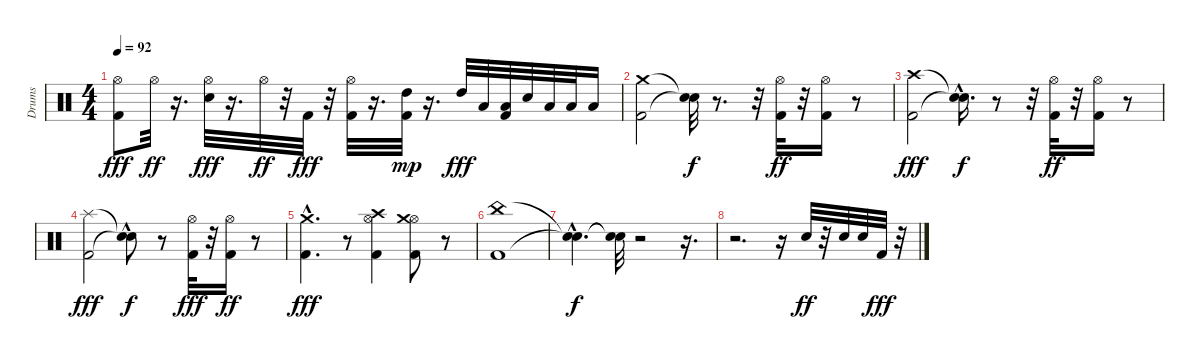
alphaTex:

\track ("Drums" "Drums") {instrument percussion}
\staff {score}
\articulation defaults
\ts (4 4)
\tempo 92
\clef neutral
\ks c
("Kick (hit) 2" "Hi-Hat (open)").8{dy fff} "Hi-Hat (open)".32{dy ff} r.16{d} ("Snare (hit) 2" "Hi-Hat (open)").32{dy fff} r.16{d} "Hi-Hat (open)".32{dy ff} r.32 "Kick (hit) 2".32{dy fff} r.32 ("Kick (hit) 2" "Hi-Hat (open)").32 r.16{d} ("Kick (hit) 2" "High Tom (hit)").32{dy mp} r.16{d} "High Tom (hit)".32{dy fff} "Low Tom (hit)".32 ("Kick (hit) 2" "Low Floor Tom (hit)").32 "Snare (hit) 2".32 "Low Floor Tom (hit)".32 "Low Tom (hit)".32 "Low Floor Tom (hit)".16 |
("Kick (hit) 2" "Crash medium (hit)").2 ("Snare (hit)"{t} "Snare (hit)"{t}).32{dy f} r.8{d} r.32 ("Kick (hit) 2" "Hi-Hat (open)").32{dy ff} r.32 ("Kick (hit) 2" "Hi-Hat (open)").16 r.8 |
("Kick (hit) 2" "Crash high (hit)").2{dy fff} ("Snare (hit)"{hac t} "Snare (hit)"{t}).16{d dy f} r.8 r.32 ("Kick (hit) 2" "Hi-Hat (open)").32{dy ff} r.32 ("Kick (hit) 2" "Hi-Hat (open)").16 r.8 |
("Kick (hit) 2" "Splash (hit)").2{dy fff} ("Snare (hit)"{hac t} "Snare (hit)"{t}).8{dy f} r.8 ("Kick (hit) 2" "Hi-Hat (open)").32{dy fff} r.32 ("Kick (hit) 2" "Hi-Hat (open)").16{dy ff} r.8 |
("Kick (hit) 2"{hac} "Crash medium (hit)").4{d dy fff} r.8 ("Kick (hit) 2" "Hi-Hat (open)" "Crash high (hit)").4 ("Kick (hit) 2" "Hi-Hat (open)" "Crash medium (hit)").8 r.8 |
("China (hit)" "Kick (hit) 2").1 |
("Snare (hit)"{hac t} "Snare (hit)"{hac t}).4{d dy f} ("Snare (hit)"{t} "Snare (hit)"{t}).32 r.2 r.16{d} |
r.2{d} r.16 "Snare (hit) 2".32{dy ff} r.32 "Snare (hit) 2".32 "Snare (hit) 2".32 "Kick (hit) 2".32{dy fff} r.32
